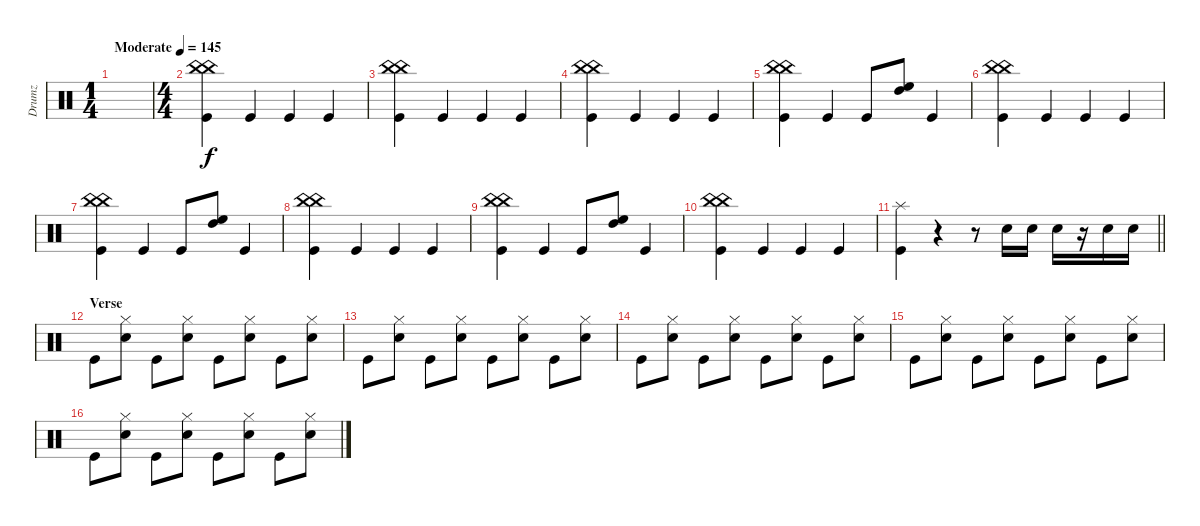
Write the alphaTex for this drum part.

\track ("Drumz" "Drumz") {instrument percussion}
\staff {score}
\articulation defaults
\ts (1 4)
\tempo (145 "Moderate")
\clef neutral
\ks c
|
\ts (4 4)
("Kick (hit)" "China (hit)" "China (hit)").4 "Kick (hit)".4 "Kick (hit)".4 "Kick (hit)".4 |
("Kick (hit)" "China (hit)" "China (hit)").4 "Kick (hit)".4 "Kick (hit)".4 "Kick (hit)".4 |
("Kick (hit)" "China (hit)" "China (hit)").4 "Kick (hit)".4 "Kick (hit)".4 "Kick (hit)".4 |
("Kick (hit)" "China (hit)" "China (hit)").4 "Kick (hit)".4 "Kick (hit)".8 ("High Tom (hit)" "High Floor Tom (hit)").8 "Kick (hit)".4 |
("Kick (hit)" "China (hit)" "China (hit)").4 "Kick (hit)".4 "Kick (hit)".4 "Kick (hit)".4 |
("Kick (hit)" "China (hit)" "China (hit)").4 "Kick (hit)".4 "Kick (hit)".8 ("High Tom (hit)" "High Floor Tom (hit)").8 "Kick (hit)".4 |
("Kick (hit)" "China (hit)" "China (hit)").4 "Kick (hit)".4 "Kick (hit)".4 "Kick (hit)".4 |
("Kick (hit)" "China (hit)" "China (hit)").4 "Kick (hit)".4 "Kick (hit)".8 ("High Tom (hit)" "High Floor Tom (hit)").8 "Kick (hit)".4 |
("Kick (hit)" "China (hit)" "China (hit)").4 "Kick (hit)".4 "Kick (hit)".4 "Kick (hit)".4 |
\barLineRight lightlight
("Kick (hit)" "Splash (hit)").4 r.4 r.8 "Snare (hit) 2".16 "Snare (hit) 2".16 "Snare (hit) 2".16 r.16 "Snare (hit) 2".16 "Snare (hit) 2".16 |
\section ("" "Verse")
"Kick (hit)".8 ("Hi-Hat (closed)" "Snare (hit) 2").8 "Kick (hit)".8 ("Hi-Hat (closed)" "Snare (hit) 2").8 "Kick (hit)".8 ("Hi-Hat (closed)" "Snare (hit) 2").8 "Kick (hit)".8 ("Hi-Hat (closed)" "Snare (hit) 2").8 |
"Kick (hit)".8 ("Hi-Hat (closed)" "Snare (hit) 2").8 "Kick (hit)".8 ("Hi-Hat (closed)" "Snare (hit) 2").8 "Kick (hit)".8 ("Hi-Hat (closed)" "Snare (hit) 2").8 "Kick (hit)".8 ("Hi-Hat (closed)" "Snare (hit) 2").8 |
"Kick (hit)".8 ("Hi-Hat (closed)" "Snare (hit) 2").8 "Kick (hit)".8 ("Hi-Hat (closed)" "Snare (hit) 2").8 "Kick (hit)".8 ("Hi-Hat (closed)" "Snare (hit) 2").8 "Kick (hit)".8 ("Hi-Hat (closed)" "Snare (hit) 2").8 |
"Kick (hit)".8 ("Hi-Hat (closed)" "Snare (hit) 2").8 "Kick (hit)".8 ("Hi-Hat (closed)" "Snare (hit) 2").8 "Kick (hit)".8 ("Hi-Hat (closed)" "Snare (hit) 2").8 "Kick (hit)".8 ("Hi-Hat (closed)" "Snare (hit) 2").8 |
"Kick (hit)".8 ("Hi-Hat (closed)" "Snare (hit) 2").8 "Kick (hit)".8 ("Hi-Hat (closed)" "Snare (hit) 2").8 "Kick (hit)".8 ("Hi-Hat (closed)" "Snare (hit) 2").8 "Kick (hit)".8 ("Hi-Hat (closed)" "Snare (hit) 2").8
